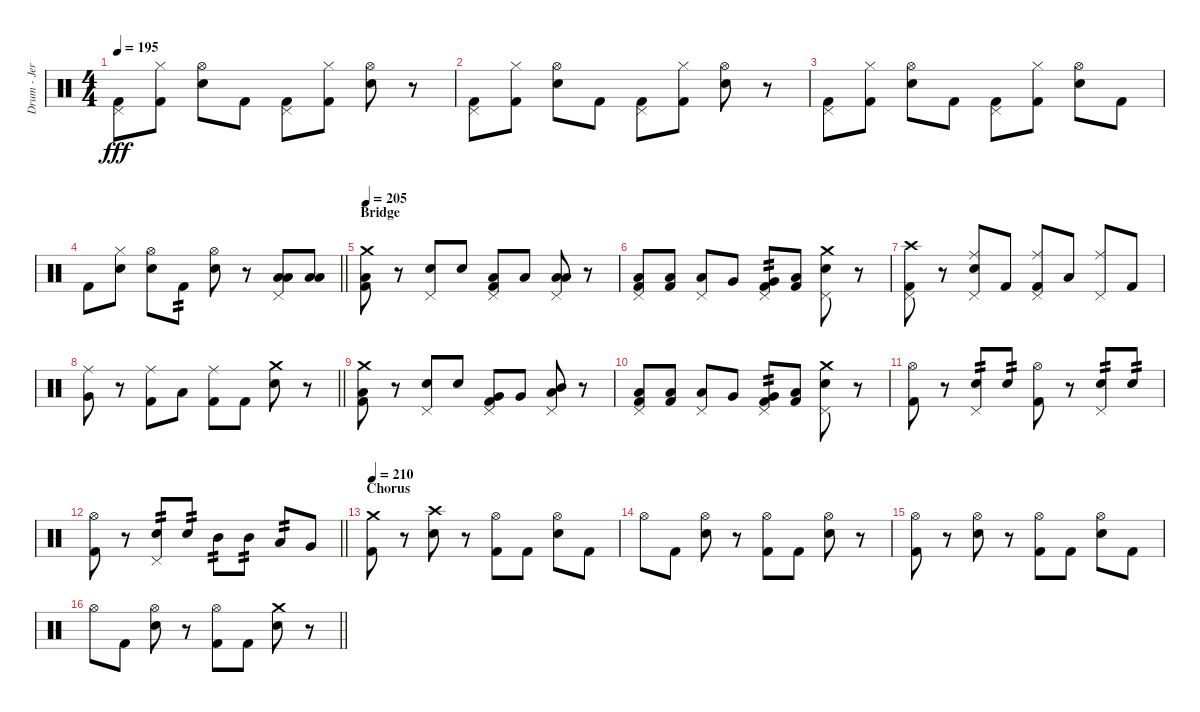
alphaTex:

\track ("Drum - Jerinx" "Drum - Jer") {instrument percussion}
\staff {score}
\articulation defaults
\ts (4 4)
\tempo 195
\clef neutral
\ks c
("Pedal Hi-Hat (hit)" "Kick (hit) 2").8{dy fff} ("Hi-Hat (closed)" "Kick (hit) 2").8 ("Hi-Hat (open)" "Snare (hit) 2").8 "Kick (hit) 2".8 ("Pedal Hi-Hat (hit)" "Kick (hit) 2").8 ("Hi-Hat (closed)" "Kick (hit) 2").8 ("Hi-Hat (open)" "Snare (hit) 2").8 r.8 |
("Pedal Hi-Hat (hit)" "Kick (hit) 2").8 ("Hi-Hat (closed)" "Kick (hit) 2").8 ("Hi-Hat (open)" "Snare (hit) 2").8 "Kick (hit) 2".8 ("Pedal Hi-Hat (hit)" "Kick (hit) 2").8 ("Hi-Hat (closed)" "Kick (hit) 2").8 ("Hi-Hat (open)" "Snare (hit) 2").8 r.8 |
("Pedal Hi-Hat (hit)" "Kick (hit) 2").8 ("Hi-Hat (closed)" "Kick (hit) 2").8 ("Hi-Hat (open)" "Snare (hit) 2").8 "Kick (hit) 2".8 ("Pedal Hi-Hat (hit)" "Kick (hit) 2").8 ("Hi-Hat (closed)" "Kick (hit) 2").8 ("Hi-Hat (open)" "Snare (hit) 2").8 "Kick (hit) 2".8 |
\barLineRight lightlight "Kick (hit) 2".8
("Hi-Hat (closed)" "Snare (hit) 2").8 ("Hi-Hat (open)" "Snare (hit) 2").8 "Kick (hit) 2".8{tp 2} ("Hi-Hat (open)" "Snare (hit) 2").8 r.8 ("Pedal Hi-Hat (hit)" "Low Tom (hit)" "Low Floor Tom (hit)").8 ("Low Tom (hit)" "Low Floor Tom (hit)").8 |
\section ("" "Bridge")
\tempo 205
("Kick (hit) 2" "Low Floor Tom (hit)" "Crash medium (hit)").8 r.8 ("Pedal Hi-Hat (hit)" "Snare (hit) 2").8 "Snare (hit) 2".8 ("Pedal Hi-Hat (hit)" "Kick (hit) 2" "Low Floor Tom (hit)").8 "Low Floor Tom (hit)".8 ("Pedal Hi-Hat (hit)" "Low Tom (hit)" "Low Floor Tom (hit)").8 r.8 |
("Pedal Hi-Hat (hit)" "Kick (hit) 2" "Low Floor Tom (hit)").8 ("Kick (hit) 2" "Low Floor Tom (hit)").8 ("Pedal Hi-Hat (hit)" "Low Tom (hit)").8 "Very Low Tom (hit)".8 ("Pedal Hi-Hat (hit)" "Kick (hit) 2" "Very Low Tom (hit)").8{tp 2} ("Kick (hit) 2" "Low Floor Tom (hit)").8 ("Pedal Hi-Hat (hit)" "Snare (hit) 2" "Crash medium (hit)").8 r.8 |
("Pedal Hi-Hat (hit)" "Kick (hit) 2" "Crash high (hit)").8 r.8 ("Pedal Hi-Hat (hit)" "Snare (hit) 2" "Ride (middle)").8 "Kick (hit) 2".8 ("Pedal Hi-Hat (hit)" "Kick (hit) 2" "Ride (middle)").8 "Low Tom (hit)".8 ("Pedal Hi-Hat (hit)" "Ride (middle)").8 "Kick (hit) 2".8 |
\barLineRight lightlight
("Very Low Tom (hit)" "Ride (middle)").8 r.8 ("Kick (hit) 2" "Ride (middle)").8 "Low Floor Tom (hit)".8 ("Kick (hit) 2" "Ride (middle)").8 "Kick (hit) 2".8 ("Snare (hit) 2" "Crash medium (hit)").8 r.8 |
("Kick (hit) 2" "Low Floor Tom (hit)" "Crash medium (hit)").8 r.8 ("Pedal Hi-Hat (hit)" "Snare (hit) 2").8 "Snare (hit) 2".8 ("Pedal Hi-Hat (hit)" "Kick (hit) 2" "Very Low Tom (hit)").8 "Very Low Tom (hit)".8 ("Pedal Hi-Hat (hit)" "Mid Tom (hit)" "Low Floor Tom (hit)").8 r.8 |
("Pedal Hi-Hat (hit)" "Kick (hit) 2" "Low Floor Tom (hit)").8 ("Kick (hit) 2" "Low Floor Tom (hit)").8 ("Pedal Hi-Hat (hit)" "Low Tom (hit)").8 "Very Low Tom (hit)".8 ("Pedal Hi-Hat (hit)" "Kick (hit) 2" "Very Low Tom (hit)").8{tp 2} ("Kick (hit) 2" "Low Floor Tom (hit)").8 ("Pedal Hi-Hat (hit)" "Snare (hit) 2" "Crash medium (hit)").8 r.8 |
("Hi-Hat (open)" "Kick (hit) 2").8 r.8 ("Pedal Hi-Hat (hit)" "Snare (hit) 2").8{tp 2} "Snare (hit) 2".8{tp 2} ("Hi-Hat (open)" "Kick (hit) 2").8 r.8 ("Pedal Hi-Hat (hit)" "Snare (hit) 2").8{tp 2} "Snare (hit) 2".8{tp 2} |
\barLineRight lightlight
("Hi-Hat (open)" "Kick (hit) 2").8 r.8 ("Pedal Hi-Hat (hit)" "Snare (hit) 2").8{tp 2} "Snare (hit) 2".8{tp 2} "Mid Tom (hit)".8{tp 2} "Mid Tom (hit)".8{tp 2} "Low Tom (hit)".8{tp 2} "Very Low Tom (hit)".8 |
\section ("" "Chorus")
\tempo 210
("Kick (hit) 2" "Crash medium (hit)").8 r.8 ("Snare (hit) 2" "Crash high (hit)").8 r.8 ("Hi-Hat (open)" "Kick (hit) 2").8 "Kick (hit) 2".8 ("Hi-Hat (open)" "Snare (hit) 2").8 "Kick (hit) 2".8 |
"Hi-Hat (open)".8 "Kick (hit) 2".8 ("Hi-Hat (open)" "Snare (hit) 2").8 r.8 ("Hi-Hat (open)" "Kick (hit) 2").8 "Kick (hit) 2".8 ("Hi-Hat (open)" "Snare (hit) 2").8 r.8 |
("Hi-Hat (open)" "Kick (hit) 2").8 r.8 ("Hi-Hat (open)" "Snare (hit) 2").8 r.8 ("Hi-Hat (open)" "Kick (hit) 2").8 "Kick (hit) 2".8 ("Hi-Hat (open)" "Snare (hit) 2").8 "Kick (hit) 2".8 |
\barLineRight lightlight "Hi-Hat (open)".8 "Kick (hit) 2".8
("Hi-Hat (open)" "Snare (hit) 2").8 r.8 ("Hi-Hat (open)" "Kick (hit) 2").8 "Kick (hit) 2".8 ("Snare (hit) 2" "Crash medium (hit)").8 r.8
